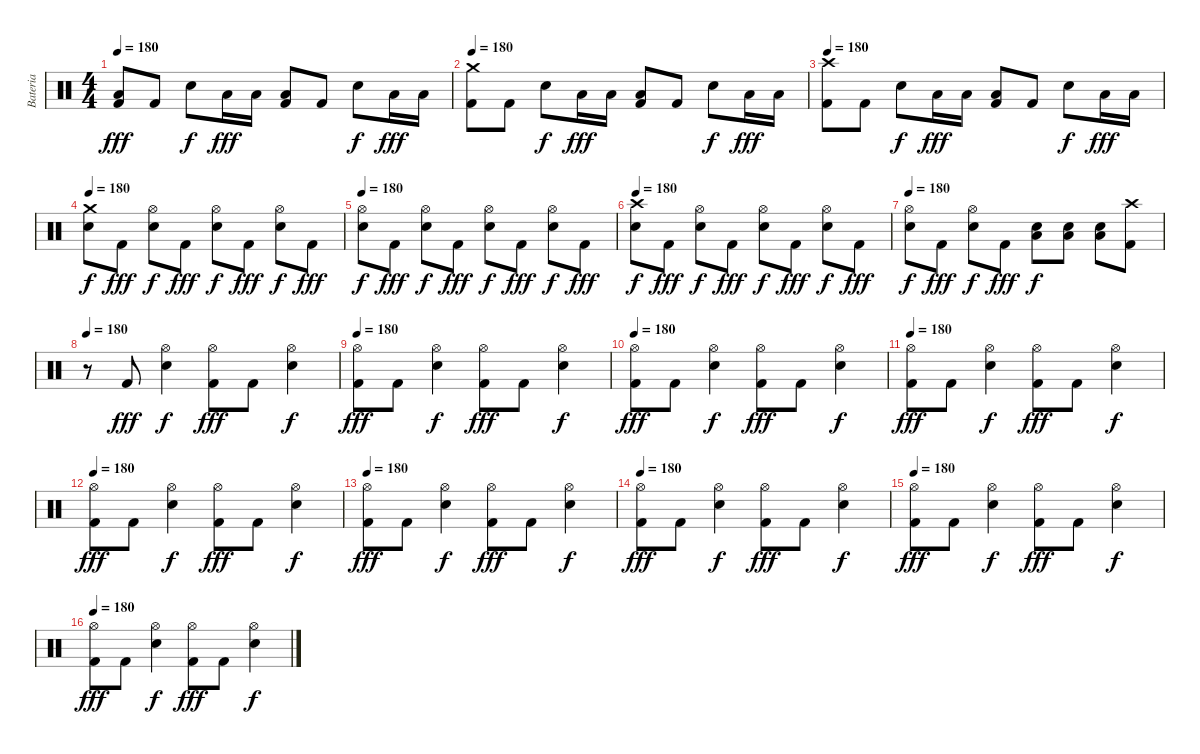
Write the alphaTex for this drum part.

\track ("Bateria" "Bateria") {instrument percussion}
\staff {score}
\articulation defaults
\ts (4 4)
\tempo 180
\clef neutral
\ks c
("Low Tom (hit)" "Kick (hit) 2").8{dy fff} "Kick (hit) 2".8 "Electric Snare (hit)".8{dy f} "Low Tom (hit)".16{dy fff} "Low Tom (hit)".16 ("Low Tom (hit)" "Kick (hit) 2").8 "Kick (hit) 2".8 "Electric Snare (hit)".8{dy f} "Low Tom (hit)".16{dy fff} "Low Tom (hit)".16 |
\tempo 180
("Crash medium (hit)" "Kick (hit) 2").8 "Kick (hit) 2".8 "Electric Snare (hit)".8{dy f} "Low Tom (hit)".16{dy fff} "Low Tom (hit)".16 ("Low Tom (hit)" "Kick (hit) 2").8 "Kick (hit) 2".8 "Electric Snare (hit)".8{dy f} "Low Tom (hit)".16{dy fff} "Low Tom (hit)".16 |
\tempo 180
("Crash high (hit)" "Kick (hit) 2").8 "Kick (hit) 2".8 "Electric Snare (hit)".8{dy f} "Low Tom (hit)".16{dy fff} "Low Tom (hit)".16 ("Low Tom (hit)" "Kick (hit) 2").8 "Kick (hit) 2".8 "Electric Snare (hit)".8{dy f} "Low Tom (hit)".16{dy fff} "Low Tom (hit)".16 |
\tempo 180
("Crash medium (hit)" "Electric Snare (hit)").8{dy f} "Kick (hit) 2".8{dy fff} ("Hi-Hat (open)" "Electric Snare (hit)").8{dy f} "Kick (hit) 2".8{dy fff} ("Hi-Hat (open)" "Electric Snare (hit)").8{dy f} "Kick (hit) 2".8{dy fff} ("Hi-Hat (open)" "Electric Snare (hit)").8{dy f} "Kick (hit) 2".8{dy fff} |
\tempo 180
("Hi-Hat (open)" "Electric Snare (hit)").8{dy f} "Kick (hit) 2".8{dy fff} ("Hi-Hat (open)" "Electric Snare (hit)").8{dy f} "Kick (hit) 2".8{dy fff} ("Hi-Hat (open)" "Electric Snare (hit)").8{dy f} "Kick (hit) 2".8{dy fff} ("Hi-Hat (open)" "Electric Snare (hit)").8{dy f} "Kick (hit) 2".8{dy fff} |
\tempo 180
("Crash high (hit)" "Electric Snare (hit)").8{dy f} "Kick (hit) 2".8{dy fff} ("Hi-Hat (open)" "Electric Snare (hit)").8{dy f} "Kick (hit) 2".8{dy fff} ("Hi-Hat (open)" "Electric Snare (hit)").8{dy f} "Kick (hit) 2".8{dy fff} ("Hi-Hat (open)" "Electric Snare (hit)").8{dy f} "Kick (hit) 2".8{dy fff} |
\tempo 180
("Hi-Hat (open)" "Electric Snare (hit)").8{dy f} "Kick (hit) 2".8{dy fff} ("Hi-Hat (open)" "Electric Snare (hit)").8{dy f} "Kick (hit) 2".8{dy fff} ("Low Tom (hit)" "Electric Snare (hit)").8{dy f} ("Low Tom (hit)" "Electric Snare (hit)").8 ("Low Tom (hit)" "Electric Snare (hit)").8 ("Crash high (hit)" "Kick (hit) 2").8 |
\tempo 180
r.8 "Kick (hit) 2".8{dy fff} ("Hi-Hat (open)" "Electric Snare (hit)").4{dy f} ("Hi-Hat (open)" "Kick (hit) 2").8{dy fff} "Kick (hit) 2".8 ("Hi-Hat (open)" "Electric Snare (hit)").4{dy f} |
\tempo 180
("Hi-Hat (open)" "Kick (hit) 2").8{dy fff} "Kick (hit) 2".8 ("Hi-Hat (open)" "Electric Snare (hit)").4{dy f} ("Hi-Hat (open)" "Kick (hit) 2").8{dy fff} "Kick (hit) 2".8 ("Hi-Hat (open)" "Electric Snare (hit)").4{dy f} |
\tempo 180
("Hi-Hat (open)" "Kick (hit) 2").8{dy fff} "Kick (hit) 2".8 ("Hi-Hat (open)" "Electric Snare (hit)").4{dy f} ("Hi-Hat (open)" "Kick (hit) 2").8{dy fff} "Kick (hit) 2".8 ("Hi-Hat (open)" "Electric Snare (hit)").4{dy f} |
\tempo 180
("Hi-Hat (open)" "Kick (hit) 2").8{dy fff} "Kick (hit) 2".8 ("Hi-Hat (open)" "Electric Snare (hit)").4{dy f} ("Hi-Hat (open)" "Kick (hit) 2").8{dy fff} "Kick (hit) 2".8 ("Hi-Hat (open)" "Electric Snare (hit)").4{dy f} |
\tempo 180
("Hi-Hat (open)" "Kick (hit) 2").8{dy fff} "Kick (hit) 2".8 ("Hi-Hat (open)" "Electric Snare (hit)").4{dy f} ("Hi-Hat (open)" "Kick (hit) 2").8{dy fff} "Kick (hit) 2".8 ("Hi-Hat (open)" "Electric Snare (hit)").4{dy f} |
\tempo 180
("Hi-Hat (open)" "Kick (hit) 2").8{dy fff} "Kick (hit) 2".8 ("Hi-Hat (open)" "Electric Snare (hit)").4{dy f} ("Hi-Hat (open)" "Kick (hit) 2").8{dy fff} "Kick (hit) 2".8 ("Hi-Hat (open)" "Electric Snare (hit)").4{dy f} |
\tempo 180
("Hi-Hat (open)" "Kick (hit) 2").8{dy fff} "Kick (hit) 2".8 ("Hi-Hat (open)" "Electric Snare (hit)").4{dy f} ("Hi-Hat (open)" "Kick (hit) 2").8{dy fff} "Kick (hit) 2".8 ("Hi-Hat (open)" "Electric Snare (hit)").4{dy f} |
\tempo 180
("Hi-Hat (open)" "Kick (hit) 2").8{dy fff} "Kick (hit) 2".8 ("Hi-Hat (open)" "Electric Snare (hit)").4{dy f} ("Hi-Hat (open)" "Kick (hit) 2").8{dy fff} "Kick (hit) 2".8 ("Hi-Hat (open)" "Electric Snare (hit)").4{dy f} |
\tempo 180
("Hi-Hat (open)" "Kick (hit) 2").8{dy fff} "Kick (hit) 2".8 ("Hi-Hat (open)" "Electric Snare (hit)").4{dy f} ("Hi-Hat (open)" "Kick (hit) 2").8{dy fff} "Kick (hit) 2".8 ("Hi-Hat (open)" "Electric Snare (hit)").4{dy f}
